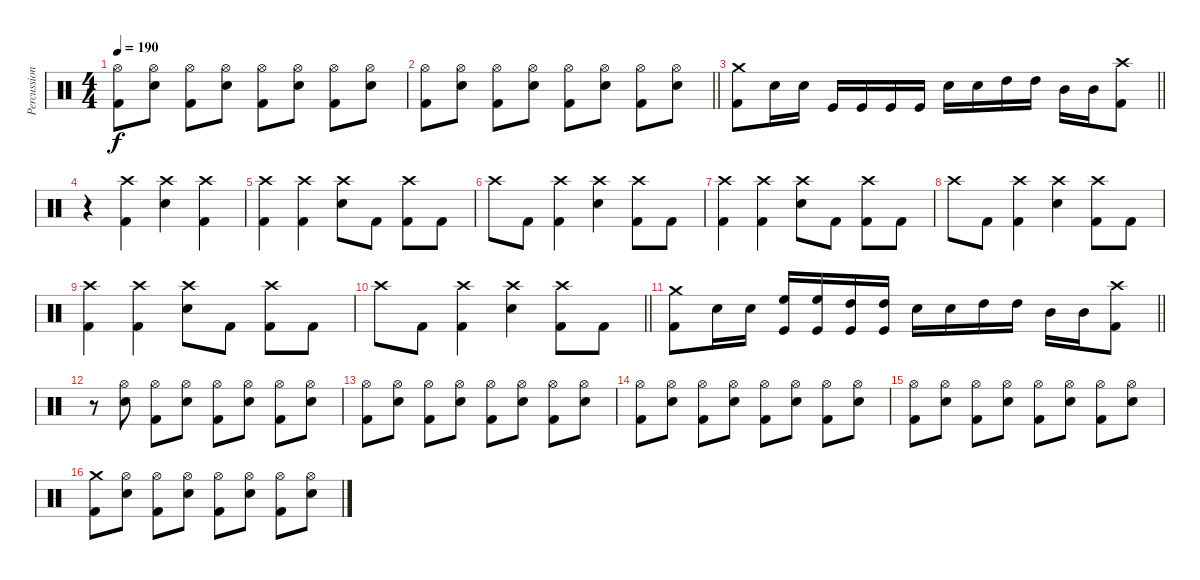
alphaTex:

\track ("Percussions" "Percussion") {instrument percussion}
\staff {score}
\articulation defaults
\ts (4 4)
\tempo 190
\clef neutral
\ks c
("Hi-Hat (open)" "Kick (hit) 2").8{dy f} ("Hi-Hat (open)" "Electric Snare (hit)").8 ("Hi-Hat (open)" "Kick (hit) 2").8 ("Hi-Hat (open)" "Electric Snare (hit)").8 ("Hi-Hat (open)" "Kick (hit) 2").8 ("Hi-Hat (open)" "Electric Snare (hit)").8 ("Hi-Hat (open)" "Kick (hit) 2").8 ("Hi-Hat (open)" "Electric Snare (hit)").8 |
\barLineRight lightlight
("Hi-Hat (open)" "Kick (hit) 2").8 ("Hi-Hat (open)" "Electric Snare (hit)").8 ("Hi-Hat (open)" "Kick (hit) 2").8 ("Hi-Hat (open)" "Electric Snare (hit)").8 ("Hi-Hat (open)" "Kick (hit) 2").8 ("Hi-Hat (open)" "Electric Snare (hit)").8 ("Hi-Hat (open)" "Kick (hit) 2").8 ("Hi-Hat (open)" "Electric Snare (hit)").8 |
\barLineRight lightlight
("Crash medium (hit)" "Kick (hit) 2").8 "Electric Snare (hit)".16 "Electric Snare (hit)".16 "Kick (hit)".16 "Kick (hit)".16 "Kick (hit)".16 "Kick (hit)".16 "Electric Snare (hit)".16 "Electric Snare (hit)".16 "High Tom (hit)".16 "High Tom (hit)".16 "Mid Tom (hit)".16 "Mid Tom (hit)".16 ("Crash high (hit)" "Kick (hit) 2").8 |
r.4 ("Crash high (hit)" "Kick (hit) 2").4 ("Crash high (hit)" "Electric Snare (hit)").4 ("Crash high (hit)" "Kick (hit) 2").4 |
("Crash high (hit)" "Kick (hit) 2").4 ("Crash high (hit)" "Kick (hit) 2").4 ("Crash high (hit)" "Electric Snare (hit)").8 "Kick (hit) 2".8 ("Crash high (hit)" "Kick (hit) 2").8 "Kick (hit) 2".8 |
"Crash high (hit)".8 "Kick (hit) 2".8 ("Crash high (hit)" "Kick (hit) 2").4 ("Crash high (hit)" "Electric Snare (hit)").4 ("Crash high (hit)" "Kick (hit) 2").8 "Kick (hit) 2".8 |
("Crash high (hit)" "Kick (hit) 2").4 ("Crash high (hit)" "Kick (hit) 2").4 ("Crash high (hit)" "Electric Snare (hit)").8 "Kick (hit) 2".8 ("Crash high (hit)" "Kick (hit) 2").8 "Kick (hit) 2".8 |
"Crash high (hit)".8 "Kick (hit) 2".8 ("Crash high (hit)" "Kick (hit) 2").4 ("Crash high (hit)" "Electric Snare (hit)").4 ("Crash high (hit)" "Kick (hit) 2").8 "Kick (hit) 2".8 |
("Crash high (hit)" "Kick (hit) 2").4 ("Crash high (hit)" "Kick (hit) 2").4 ("Crash high (hit)" "Electric Snare (hit)").8 "Kick (hit) 2".8 ("Crash high (hit)" "Kick (hit) 2").8 "Kick (hit) 2".8 |
\barLineRight lightlight "Crash high (hit)".8 "Kick (hit) 2".8
("Crash high (hit)" "Kick (hit) 2").4 ("Crash high (hit)" "Electric Snare (hit)").4 ("Crash high (hit)" "Kick (hit) 2").8 "Kick (hit) 2".8 |
\barLineRight lightlight
("Crash medium (hit)" "Kick (hit) 2").8 "Electric Snare (hit)".16 "Electric Snare (hit)".16 ("High Floor Tom (hit)" "Kick (hit)").16 ("High Floor Tom (hit)" "Kick (hit)").16 ("High Tom (hit)" "Kick (hit)").16 ("High Tom (hit)" "Kick (hit)").16 "Electric Snare (hit)".16 "Electric Snare (hit)".16 "High Tom (hit)".16 "High Tom (hit)".16 "Mid Tom (hit)".16 "Mid Tom (hit)".16 ("Crash high (hit)" "Kick (hit) 2").8 |
r.8 ("Hi-Hat (open)" "Electric Snare (hit)").8 ("Hi-Hat (open)" "Kick (hit) 2").8 ("Hi-Hat (open)" "Electric Snare (hit)").8 ("Hi-Hat (open)" "Kick (hit) 2").8 ("Hi-Hat (open)" "Electric Snare (hit)").8 ("Hi-Hat (open)" "Kick (hit) 2").8 ("Hi-Hat (open)" "Electric Snare (hit)").8 |
("Hi-Hat (open)" "Kick (hit) 2").8 ("Hi-Hat (open)" "Electric Snare (hit)").8 ("Hi-Hat (open)" "Kick (hit) 2").8 ("Hi-Hat (open)" "Electric Snare (hit)").8 ("Hi-Hat (open)" "Kick (hit) 2").8 ("Hi-Hat (open)" "Electric Snare (hit)").8 ("Hi-Hat (open)" "Kick (hit) 2").8 ("Hi-Hat (open)" "Electric Snare (hit)").8 |
("Hi-Hat (open)" "Kick (hit) 2").8 ("Hi-Hat (open)" "Electric Snare (hit)").8 ("Hi-Hat (open)" "Kick (hit) 2").8 ("Hi-Hat (open)" "Electric Snare (hit)").8 ("Hi-Hat (open)" "Kick (hit) 2").8 ("Hi-Hat (open)" "Electric Snare (hit)").8 ("Hi-Hat (open)" "Kick (hit) 2").8 ("Hi-Hat (open)" "Electric Snare (hit)").8 |
("Hi-Hat (open)" "Kick (hit) 2").8 ("Hi-Hat (open)" "Electric Snare (hit)").8 ("Hi-Hat (open)" "Kick (hit) 2").8 ("Hi-Hat (open)" "Electric Snare (hit)").8 ("Hi-Hat (open)" "Kick (hit) 2").8 ("Hi-Hat (open)" "Electric Snare (hit)").8 ("Hi-Hat (open)" "Kick (hit) 2").8 ("Hi-Hat (open)" "Electric Snare (hit)").8 |
("Crash medium (hit)" "Kick (hit) 2").8 ("Hi-Hat (open)" "Electric Snare (hit)").8 ("Hi-Hat (open)" "Kick (hit) 2").8 ("Hi-Hat (open)" "Electric Snare (hit)").8 ("Hi-Hat (open)" "Kick (hit) 2").8 ("Hi-Hat (open)" "Electric Snare (hit)").8 ("Hi-Hat (open)" "Kick (hit) 2").8 ("Hi-Hat (open)" "Electric Snare (hit)").8
